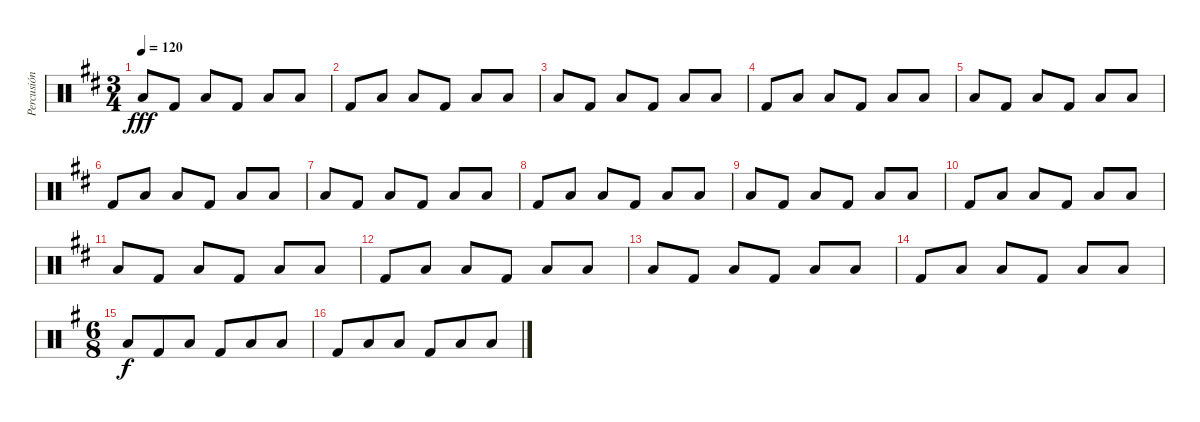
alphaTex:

\track ("Percusión" "Percusión") {instrument percussion}
\staff {score}
\articulation defaults
\ts (3 4)
\tempo 120
\clef neutral
\ks d "Low Tom (hit)".8{dy fff} "Kick (hit) 2".8 "Low Tom (hit)".8 "Kick (hit) 2".8 "Low Tom (hit)".8 "Low Tom (hit)".8
|
"Kick (hit) 2".8 "Low Tom (hit)".8 "Low Tom (hit)".8 "Kick (hit) 2".8 "Low Tom (hit)".8 "Low Tom (hit)".8 |
"Low Tom (hit)".8 "Kick (hit) 2".8 "Low Tom (hit)".8 "Kick (hit) 2".8 "Low Tom (hit)".8 "Low Tom (hit)".8 |
"Kick (hit) 2".8 "Low Tom (hit)".8 "Low Tom (hit)".8 "Kick (hit) 2".8 "Low Tom (hit)".8 "Low Tom (hit)".8 |
"Low Tom (hit)".8 "Kick (hit) 2".8 "Low Tom (hit)".8 "Kick (hit) 2".8 "Low Tom (hit)".8 "Low Tom (hit)".8 |
"Kick (hit) 2".8 "Low Tom (hit)".8 "Low Tom (hit)".8 "Kick (hit) 2".8 "Low Tom (hit)".8 "Low Tom (hit)".8 |
"Low Tom (hit)".8 "Kick (hit) 2".8 "Low Tom (hit)".8 "Kick (hit) 2".8 "Low Tom (hit)".8 "Low Tom (hit)".8 |
"Kick (hit) 2".8 "Low Tom (hit)".8 "Low Tom (hit)".8 "Kick (hit) 2".8 "Low Tom (hit)".8 "Low Tom (hit)".8 |
"Low Tom (hit)".8 "Kick (hit) 2".8 "Low Tom (hit)".8 "Kick (hit) 2".8 "Low Tom (hit)".8 "Low Tom (hit)".8 |
"Kick (hit) 2".8 "Low Tom (hit)".8 "Low Tom (hit)".8 "Kick (hit) 2".8 "Low Tom (hit)".8 "Low Tom (hit)".8 |
"Low Tom (hit)".8 "Kick (hit) 2".8 "Low Tom (hit)".8 "Kick (hit) 2".8 "Low Tom (hit)".8 "Low Tom (hit)".8 |
"Kick (hit) 2".8 "Low Tom (hit)".8 "Low Tom (hit)".8 "Kick (hit) 2".8 "Low Tom (hit)".8 "Low Tom (hit)".8 |
"Low Tom (hit)".8 "Kick (hit) 2".8 "Low Tom (hit)".8 "Kick (hit) 2".8 "Low Tom (hit)".8 "Low Tom (hit)".8 |
"Kick (hit) 2".8 "Low Tom (hit)".8 "Low Tom (hit)".8 "Kick (hit) 2".8 "Low Tom (hit)".8 "Low Tom (hit)".8 |
\ts (6 8)
\ks g "Low Tom (hit)".8{dy f} "Kick (hit) 2".8 "Low Tom (hit)".8 "Kick (hit) 2".8 "Low Tom (hit)".8 "Low Tom (hit)".8
|
"Kick (hit) 2".8 "Low Tom (hit)".8 "Low Tom (hit)".8 "Kick (hit) 2".8 "Low Tom (hit)".8 "Low Tom (hit)".8
